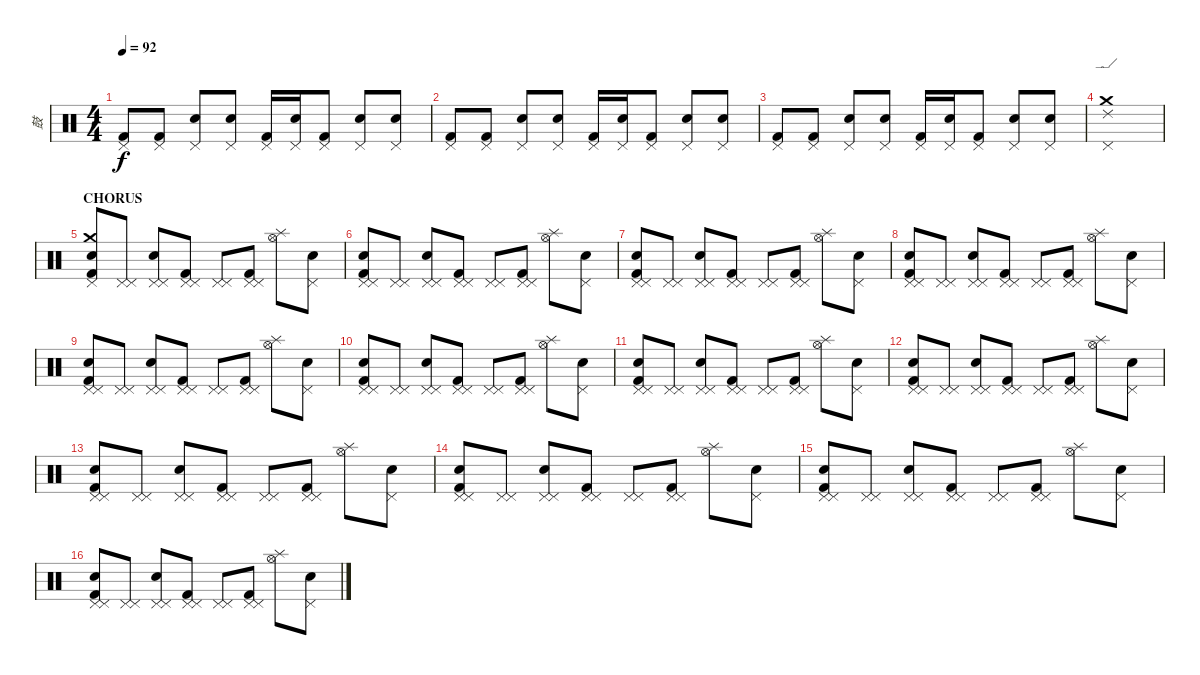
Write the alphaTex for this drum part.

\track ("鼓" "鼓") {instrument percussion}
\staff {score}
\articulation defaults
\ts (4 4)
\tempo 92
\clef neutral
\ks c
("Pedal Hi-Hat (hit)" "Kick (hit) 2").8{dy f balance 16} ("Pedal Hi-Hat (hit)" "Kick (hit) 2").8 ("Pedal Hi-Hat (hit)" "Electric Snare (hit)").8 ("Pedal Hi-Hat (hit)" "Electric Snare (hit)").8 ("Pedal Hi-Hat (hit)" "Kick (hit) 2").16{balance 0} ("Pedal Hi-Hat (hit)" "Electric Snare (hit)").16 ("Pedal Hi-Hat (hit)" "Kick (hit) 2").8 ("Pedal Hi-Hat (hit)" "Electric Snare (hit)").8 ("Pedal Hi-Hat (hit)" "Electric Snare (hit)").8 |
("Pedal Hi-Hat (hit)" "Kick (hit) 2").8{balance 16} ("Pedal Hi-Hat (hit)" "Kick (hit) 2").8 ("Pedal Hi-Hat (hit)" "Electric Snare (hit)").8 ("Pedal Hi-Hat (hit)" "Electric Snare (hit)").8 ("Pedal Hi-Hat (hit)" "Kick (hit) 2").16{balance 0} ("Pedal Hi-Hat (hit)" "Electric Snare (hit)").16 ("Pedal Hi-Hat (hit)" "Kick (hit) 2").8 ("Pedal Hi-Hat (hit)" "Electric Snare (hit)").8 ("Pedal Hi-Hat (hit)" "Electric Snare (hit)").8 |
("Pedal Hi-Hat (hit)" "Kick (hit) 2").8{balance 16} ("Pedal Hi-Hat (hit)" "Kick (hit) 2").8 ("Pedal Hi-Hat (hit)" "Electric Snare (hit)").8 ("Pedal Hi-Hat (hit)" "Electric Snare (hit)").8 ("Pedal Hi-Hat (hit)" "Kick (hit) 2").16{balance 0} ("Pedal Hi-Hat (hit)" "Electric Snare (hit)").16 ("Pedal Hi-Hat (hit)" "Kick (hit) 2").8 ("Pedal Hi-Hat (hit)" "Electric Snare (hit)").8 ("Pedal Hi-Hat (hit)" "Electric Snare (hit)").8 |
("Pedal Hi-Hat (hit)" "Crash medium (hit)" "Ride (edge) 2").1 |
\section ("" "CHORUS")
("Pedal Hi-Hat (hit)" "Crash medium (hit)" "Kick (hit) 2" "Snare (hit) 2").8{balance 8} ("Pedal Hi-Hat (hit)" "Pedal Hi-Hat (hit)").8 ("Pedal Hi-Hat (hit)" "Pedal Hi-Hat (hit)" "Electric Snare (hit)").8 ("Pedal Hi-Hat (hit)" "Pedal Hi-Hat (hit)" "Kick (hit) 2").8 ("Pedal Hi-Hat (hit)" "Pedal Hi-Hat (hit)").8 ("Pedal Hi-Hat (hit)" "Pedal Hi-Hat (hit)" "Kick (hit) 2").8 ("Splash (hit)" "Hi-Hat (open)").8 ("Pedal Hi-Hat (hit)" "Electric Snare (hit)").8 |
("Pedal Hi-Hat (hit)" "Pedal Hi-Hat (hit)" "Kick (hit) 2" "Snare (hit) 2").8 ("Pedal Hi-Hat (hit)" "Pedal Hi-Hat (hit)").8 ("Pedal Hi-Hat (hit)" "Pedal Hi-Hat (hit)" "Electric Snare (hit)").8 ("Pedal Hi-Hat (hit)" "Pedal Hi-Hat (hit)" "Kick (hit) 2").8 ("Pedal Hi-Hat (hit)" "Pedal Hi-Hat (hit)").8 ("Pedal Hi-Hat (hit)" "Pedal Hi-Hat (hit)" "Kick (hit) 2").8 ("Splash (hit)" "Hi-Hat (open)").8 ("Pedal Hi-Hat (hit)" "Electric Snare (hit)").8 |
("Pedal Hi-Hat (hit)" "Pedal Hi-Hat (hit)" "Kick (hit) 2" "Snare (hit) 2").8 ("Pedal Hi-Hat (hit)" "Pedal Hi-Hat (hit)").8 ("Pedal Hi-Hat (hit)" "Pedal Hi-Hat (hit)" "Electric Snare (hit)").8 ("Pedal Hi-Hat (hit)" "Pedal Hi-Hat (hit)" "Kick (hit) 2").8 ("Pedal Hi-Hat (hit)" "Pedal Hi-Hat (hit)").8 ("Pedal Hi-Hat (hit)" "Pedal Hi-Hat (hit)" "Kick (hit) 2").8 ("Splash (hit)" "Hi-Hat (open)").8 ("Pedal Hi-Hat (hit)" "Electric Snare (hit)").8 |
("Pedal Hi-Hat (hit)" "Pedal Hi-Hat (hit)" "Kick (hit) 2" "Snare (hit) 2").8 ("Pedal Hi-Hat (hit)" "Pedal Hi-Hat (hit)").8 ("Pedal Hi-Hat (hit)" "Pedal Hi-Hat (hit)" "Electric Snare (hit)").8 ("Pedal Hi-Hat (hit)" "Pedal Hi-Hat (hit)" "Kick (hit) 2").8 ("Pedal Hi-Hat (hit)" "Pedal Hi-Hat (hit)").8 ("Pedal Hi-Hat (hit)" "Pedal Hi-Hat (hit)" "Kick (hit) 2").8 ("Splash (hit)" "Hi-Hat (open)").8 ("Pedal Hi-Hat (hit)" "Electric Snare (hit)").8 |
("Pedal Hi-Hat (hit)" "Pedal Hi-Hat (hit)" "Kick (hit) 2" "Snare (hit) 2").8 ("Pedal Hi-Hat (hit)" "Pedal Hi-Hat (hit)").8 ("Pedal Hi-Hat (hit)" "Pedal Hi-Hat (hit)" "Electric Snare (hit)").8 ("Pedal Hi-Hat (hit)" "Pedal Hi-Hat (hit)" "Kick (hit) 2").8 ("Pedal Hi-Hat (hit)" "Pedal Hi-Hat (hit)").8 ("Pedal Hi-Hat (hit)" "Pedal Hi-Hat (hit)" "Kick (hit) 2").8 ("Splash (hit)" "Hi-Hat (open)").8 ("Pedal Hi-Hat (hit)" "Electric Snare (hit)").8 |
("Pedal Hi-Hat (hit)" "Pedal Hi-Hat (hit)" "Kick (hit) 2" "Snare (hit) 2").8 ("Pedal Hi-Hat (hit)" "Pedal Hi-Hat (hit)").8 ("Pedal Hi-Hat (hit)" "Pedal Hi-Hat (hit)" "Electric Snare (hit)").8 ("Pedal Hi-Hat (hit)" "Pedal Hi-Hat (hit)" "Kick (hit) 2").8 ("Pedal Hi-Hat (hit)" "Pedal Hi-Hat (hit)").8 ("Pedal Hi-Hat (hit)" "Pedal Hi-Hat (hit)" "Kick (hit) 2").8 ("Splash (hit)" "Hi-Hat (open)").8 ("Pedal Hi-Hat (hit)" "Electric Snare (hit)").8 |
("Pedal Hi-Hat (hit)" "Pedal Hi-Hat (hit)" "Kick (hit) 2" "Snare (hit) 2").8 ("Pedal Hi-Hat (hit)" "Pedal Hi-Hat (hit)").8 ("Pedal Hi-Hat (hit)" "Pedal Hi-Hat (hit)" "Electric Snare (hit)").8 ("Pedal Hi-Hat (hit)" "Pedal Hi-Hat (hit)" "Kick (hit) 2").8 ("Pedal Hi-Hat (hit)" "Pedal Hi-Hat (hit)").8 ("Pedal Hi-Hat (hit)" "Pedal Hi-Hat (hit)" "Kick (hit) 2").8 ("Splash (hit)" "Hi-Hat (open)").8 ("Pedal Hi-Hat (hit)" "Electric Snare (hit)").8 |
("Pedal Hi-Hat (hit)" "Pedal Hi-Hat (hit)" "Kick (hit) 2" "Snare (hit) 2").8 ("Pedal Hi-Hat (hit)" "Pedal Hi-Hat (hit)").8 ("Pedal Hi-Hat (hit)" "Pedal Hi-Hat (hit)" "Electric Snare (hit)").8 ("Pedal Hi-Hat (hit)" "Pedal Hi-Hat (hit)" "Kick (hit) 2").8 ("Pedal Hi-Hat (hit)" "Pedal Hi-Hat (hit)").8 ("Pedal Hi-Hat (hit)" "Pedal Hi-Hat (hit)" "Kick (hit) 2").8 ("Splash (hit)" "Hi-Hat (open)").8 ("Pedal Hi-Hat (hit)" "Electric Snare (hit)").8 |
("Pedal Hi-Hat (hit)" "Pedal Hi-Hat (hit)" "Kick (hit) 2" "Snare (hit) 2").8 ("Pedal Hi-Hat (hit)" "Pedal Hi-Hat (hit)").8 ("Pedal Hi-Hat (hit)" "Pedal Hi-Hat (hit)" "Electric Snare (hit)").8 ("Pedal Hi-Hat (hit)" "Pedal Hi-Hat (hit)" "Kick (hit) 2").8 ("Pedal Hi-Hat (hit)" "Pedal Hi-Hat (hit)").8 ("Pedal Hi-Hat (hit)" "Pedal Hi-Hat (hit)" "Kick (hit) 2").8 ("Splash (hit)" "Hi-Hat (open)").8 ("Pedal Hi-Hat (hit)" "Electric Snare (hit)").8 |
("Pedal Hi-Hat (hit)" "Pedal Hi-Hat (hit)" "Kick (hit) 2" "Snare (hit) 2").8 ("Pedal Hi-Hat (hit)" "Pedal Hi-Hat (hit)").8 ("Pedal Hi-Hat (hit)" "Pedal Hi-Hat (hit)" "Electric Snare (hit)").8 ("Pedal Hi-Hat (hit)" "Pedal Hi-Hat (hit)" "Kick (hit) 2").8 ("Pedal Hi-Hat (hit)" "Pedal Hi-Hat (hit)").8 ("Pedal Hi-Hat (hit)" "Pedal Hi-Hat (hit)" "Kick (hit) 2").8 ("Splash (hit)" "Hi-Hat (open)").8 ("Pedal Hi-Hat (hit)" "Electric Snare (hit)").8 |
("Pedal Hi-Hat (hit)" "Pedal Hi-Hat (hit)" "Kick (hit) 2" "Snare (hit) 2").8 ("Pedal Hi-Hat (hit)" "Pedal Hi-Hat (hit)").8 ("Pedal Hi-Hat (hit)" "Pedal Hi-Hat (hit)" "Electric Snare (hit)").8 ("Pedal Hi-Hat (hit)" "Pedal Hi-Hat (hit)" "Kick (hit) 2").8 ("Pedal Hi-Hat (hit)" "Pedal Hi-Hat (hit)").8 ("Pedal Hi-Hat (hit)" "Pedal Hi-Hat (hit)" "Kick (hit) 2").8 ("Splash (hit)" "Hi-Hat (open)").8 ("Pedal Hi-Hat (hit)" "Electric Snare (hit)").8 |
("Pedal Hi-Hat (hit)" "Pedal Hi-Hat (hit)" "Kick (hit) 2" "Snare (hit) 2").8 ("Pedal Hi-Hat (hit)" "Pedal Hi-Hat (hit)").8 ("Pedal Hi-Hat (hit)" "Pedal Hi-Hat (hit)" "Electric Snare (hit)").8 ("Pedal Hi-Hat (hit)" "Pedal Hi-Hat (hit)" "Kick (hit) 2").8 ("Pedal Hi-Hat (hit)" "Pedal Hi-Hat (hit)").8 ("Pedal Hi-Hat (hit)" "Pedal Hi-Hat (hit)" "Kick (hit) 2").8 ("Splash (hit)" "Hi-Hat (open)").8 ("Pedal Hi-Hat (hit)" "Electric Snare (hit)").8
